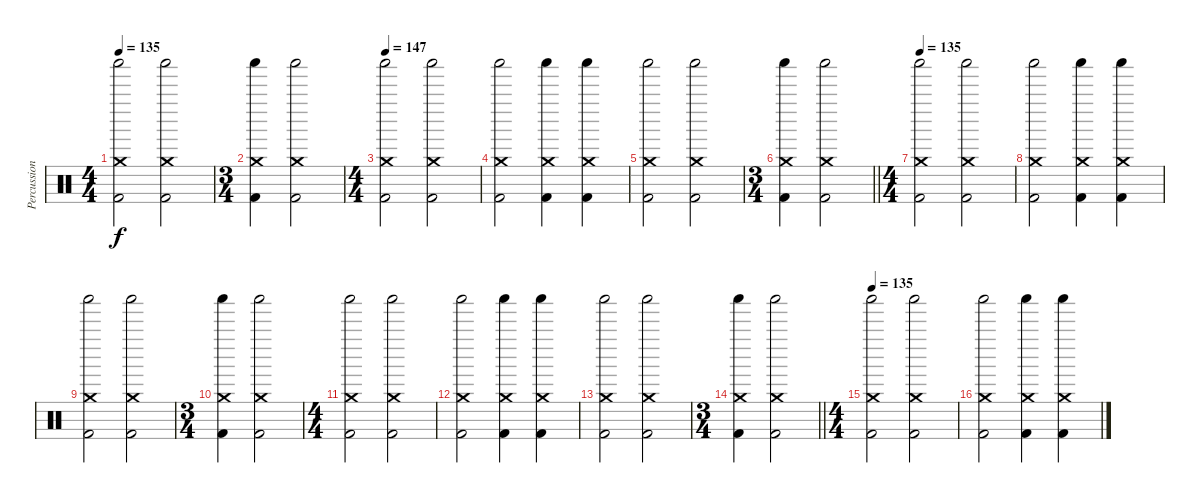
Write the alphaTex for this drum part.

\track ("Percussioni" "Percussion") {instrument percussion}
\staff {score}
\articulation defaults
\ts (4 4)
\tempo 135
\clef neutral
\ks c
("Kick (hit) 2" "Shaker (hit)" "Crash medium (hit)").2{dy f} ("Kick (hit) 2" "Shaker (hit)" "Crash medium (hit)").2 |
\ts (3 4)
("Kick (hit) 2" "Shaker (hit)" "Crash medium (hit)").4 ("Kick (hit) 2" "Shaker (hit)" "Crash medium (hit)").2 |
\ts (4 4)
\tempo 147
("Kick (hit) 2" "Shaker (hit)" "Crash medium (hit)").2 ("Kick (hit) 2" "Shaker (hit)" "Crash medium (hit)").2 |
("Kick (hit) 2" "Shaker (hit)" "Crash medium (hit)").2 ("Kick (hit) 2" "Shaker (hit)" "Crash medium (hit)").4 ("Kick (hit) 2" "Shaker (hit)" "Crash medium (hit)").4 |
("Kick (hit) 2" "Shaker (hit)" "Crash medium (hit)").2 ("Kick (hit) 2" "Shaker (hit)" "Crash medium (hit)").2 |
\ts (3 4)
\barLineRight lightlight
("Kick (hit) 2" "Shaker (hit)" "Crash medium (hit)").4 ("Kick (hit) 2" "Shaker (hit)" "Crash medium (hit)").2 |
\ts (4 4)
\tempo 135
("Kick (hit) 2" "Shaker (hit)" "Crash medium (hit)").2 ("Kick (hit) 2" "Shaker (hit)" "Crash medium (hit)").2 |
("Kick (hit) 2" "Shaker (hit)" "Crash medium (hit)").2 ("Kick (hit) 2" "Shaker (hit)" "Crash medium (hit)").4 ("Kick (hit) 2" "Shaker (hit)" "Crash medium (hit)").4 |
("Kick (hit) 2" "Shaker (hit)" "Crash medium (hit)").2 ("Kick (hit) 2" "Shaker (hit)" "Crash medium (hit)").2 |
\ts (3 4)
("Kick (hit) 2" "Shaker (hit)" "Crash medium (hit)").4 ("Kick (hit) 2" "Shaker (hit)" "Crash medium (hit)").2 |
\ts (4 4)
("Kick (hit) 2" "Shaker (hit)" "Crash medium (hit)").2 ("Kick (hit) 2" "Shaker (hit)" "Crash medium (hit)").2 |
("Kick (hit) 2" "Shaker (hit)" "Crash medium (hit)").2 ("Kick (hit) 2" "Shaker (hit)" "Crash medium (hit)").4 ("Kick (hit) 2" "Shaker (hit)" "Crash medium (hit)").4 |
("Kick (hit) 2" "Shaker (hit)" "Crash medium (hit)").2 ("Kick (hit) 2" "Shaker (hit)" "Crash medium (hit)").2 |
\ts (3 4)
\barLineRight lightlight
("Kick (hit) 2" "Shaker (hit)" "Crash medium (hit)").4 ("Kick (hit) 2" "Shaker (hit)" "Crash medium (hit)").2 |
\ts (4 4)
\tempo 135
("Kick (hit) 2" "Shaker (hit)" "Crash medium (hit)").2 ("Kick (hit) 2" "Shaker (hit)" "Crash medium (hit)").2 |
("Kick (hit) 2" "Shaker (hit)" "Crash medium (hit)").2 ("Kick (hit) 2" "Shaker (hit)" "Crash medium (hit)").4 ("Kick (hit) 2" "Shaker (hit)" "Crash medium (hit)").4
